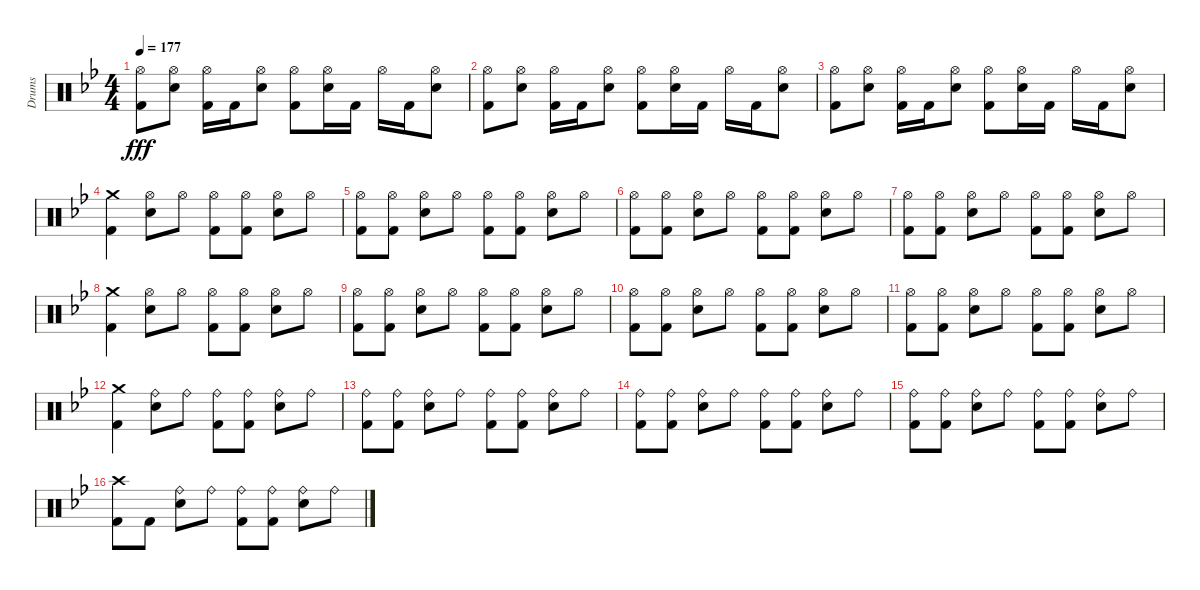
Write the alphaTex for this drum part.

\track ("Drums" "Drums") {instrument percussion}
\staff {score}
\articulation defaults
\ts (4 4)
\tempo 177
\clef neutral
\ks bb
("Hi-Hat (open)" "Kick (hit) 2").8{dy fff} ("Hi-Hat (open)" "Snare (hit) 2").8 ("Hi-Hat (open)" "Kick (hit) 2").16 "Kick (hit) 2".16 ("Hi-Hat (open)" "Snare (hit) 2").8 ("Hi-Hat (open)" "Kick (hit) 2").8 ("Hi-Hat (open)" "Snare (hit) 2").16 "Kick (hit) 2".16 "Hi-Hat (open)".16 "Kick (hit) 2".16 ("Hi-Hat (open)" "Snare (hit) 2").8 |
("Hi-Hat (open)" "Kick (hit) 2").8 ("Hi-Hat (open)" "Snare (hit) 2").8 ("Hi-Hat (open)" "Kick (hit) 2").16 "Kick (hit) 2".16 ("Hi-Hat (open)" "Snare (hit) 2").8 ("Hi-Hat (open)" "Kick (hit) 2").8 ("Hi-Hat (open)" "Snare (hit) 2").16 "Kick (hit) 2".16 "Hi-Hat (open)".16 "Kick (hit) 2".16 ("Hi-Hat (open)" "Snare (hit) 2").8 |
("Hi-Hat (open)" "Kick (hit) 2").8 ("Hi-Hat (open)" "Snare (hit) 2").8 ("Hi-Hat (open)" "Kick (hit) 2").16 "Kick (hit) 2".16 ("Hi-Hat (open)" "Snare (hit) 2").8 ("Hi-Hat (open)" "Kick (hit) 2").8 ("Hi-Hat (open)" "Snare (hit) 2").16 "Kick (hit) 2".16 "Hi-Hat (open)".16 "Kick (hit) 2".16 ("Hi-Hat (open)" "Snare (hit) 2").8 |
("Crash medium (hit)" "Kick (hit) 2").4 ("Hi-Hat (open)" "Snare (hit) 2").8 "Hi-Hat (open)".8 ("Hi-Hat (open)" "Kick (hit) 2").8 ("Hi-Hat (open)" "Kick (hit) 2").8 ("Hi-Hat (open)" "Snare (hit) 2").8 "Hi-Hat (open)".8 |
("Hi-Hat (open)" "Kick (hit) 2").8 ("Hi-Hat (open)" "Kick (hit) 2").8 ("Hi-Hat (open)" "Snare (hit) 2").8 "Hi-Hat (open)".8 ("Hi-Hat (open)" "Kick (hit) 2").8 ("Hi-Hat (open)" "Kick (hit) 2").8 ("Hi-Hat (open)" "Snare (hit) 2").8 "Hi-Hat (open)".8 |
("Hi-Hat (open)" "Kick (hit) 2").8 ("Hi-Hat (open)" "Kick (hit) 2").8 ("Hi-Hat (open)" "Snare (hit) 2").8 "Hi-Hat (open)".8 ("Hi-Hat (open)" "Kick (hit) 2").8 ("Hi-Hat (open)" "Kick (hit) 2").8 ("Hi-Hat (open)" "Snare (hit) 2").8 "Hi-Hat (open)".8 |
("Hi-Hat (open)" "Kick (hit) 2").8 ("Hi-Hat (open)" "Kick (hit) 2").8 ("Hi-Hat (open)" "Snare (hit) 2").8 "Hi-Hat (open)".8 ("Hi-Hat (open)" "Kick (hit) 2").8 ("Hi-Hat (open)" "Kick (hit) 2").8 ("Hi-Hat (open)" "Snare (hit) 2").8 "Hi-Hat (open)".8 |
("Crash medium (hit)" "Kick (hit) 2").4 ("Hi-Hat (open)" "Snare (hit) 2").8 "Hi-Hat (open)".8 ("Hi-Hat (open)" "Kick (hit) 2").8 ("Hi-Hat (open)" "Kick (hit) 2").8 ("Hi-Hat (open)" "Snare (hit) 2").8 "Hi-Hat (open)".8 |
("Hi-Hat (open)" "Kick (hit) 2").8 ("Hi-Hat (open)" "Kick (hit) 2").8 ("Hi-Hat (open)" "Snare (hit) 2").8 "Hi-Hat (open)".8 ("Hi-Hat (open)" "Kick (hit) 2").8 ("Hi-Hat (open)" "Kick (hit) 2").8 ("Hi-Hat (open)" "Snare (hit) 2").8 "Hi-Hat (open)".8 |
("Hi-Hat (open)" "Kick (hit) 2").8 ("Hi-Hat (open)" "Kick (hit) 2").8 ("Hi-Hat (open)" "Snare (hit) 2").8 "Hi-Hat (open)".8 ("Hi-Hat (open)" "Kick (hit) 2").8 ("Hi-Hat (open)" "Kick (hit) 2").8 ("Hi-Hat (open)" "Snare (hit) 2").8 "Hi-Hat (open)".8 |
("Hi-Hat (open)" "Kick (hit) 2").8 ("Hi-Hat (open)" "Kick (hit) 2").8 ("Hi-Hat (open)" "Snare (hit) 2").8 "Hi-Hat (open)".8 ("Hi-Hat (open)" "Kick (hit) 2").8 ("Hi-Hat (open)" "Kick (hit) 2").8 ("Hi-Hat (open)" "Snare (hit) 2").8 "Hi-Hat (open)".8 |
("Crash medium (hit)" "Kick (hit) 2").4 ("Ride (bell)" "Snare (hit) 2").8 "Ride (bell)".8 ("Ride (bell)" "Kick (hit) 2").8 ("Ride (bell)" "Kick (hit) 2").8 ("Ride (bell)" "Snare (hit) 2").8 "Ride (bell)".8 |
("Ride (bell)" "Kick (hit) 2").8 ("Ride (bell)" "Kick (hit) 2").8 ("Ride (bell)" "Snare (hit) 2").8 "Ride (bell)".8 ("Ride (bell)" "Kick (hit) 2").8 ("Ride (bell)" "Kick (hit) 2").8 ("Ride (bell)" "Snare (hit) 2").8 "Ride (bell)".8 |
("Ride (bell)" "Kick (hit) 2").8 ("Ride (bell)" "Kick (hit) 2").8 ("Ride (bell)" "Snare (hit) 2").8 "Ride (bell)".8 ("Ride (bell)" "Kick (hit) 2").8 ("Ride (bell)" "Kick (hit) 2").8 ("Ride (bell)" "Snare (hit) 2").8 "Ride (bell)".8 |
("Ride (bell)" "Kick (hit) 2").8 ("Ride (bell)" "Kick (hit) 2").8 ("Ride (bell)" "Snare (hit) 2").8 "Ride (bell)".8 ("Ride (bell)" "Kick (hit) 2").8 ("Ride (bell)" "Kick (hit) 2").8 ("Ride (bell)" "Snare (hit) 2").8 "Ride (bell)".8 |
("Crash high (hit)" "Kick (hit) 2").8 "Kick (hit) 2".8 ("Ride (bell)" "Snare (hit) 2").8 "Ride (bell)".8 ("Ride (bell)" "Kick (hit) 2").8 ("Ride (bell)" "Kick (hit) 2").8 ("Ride (bell)" "Snare (hit) 2").8 "Ride (bell)".8
